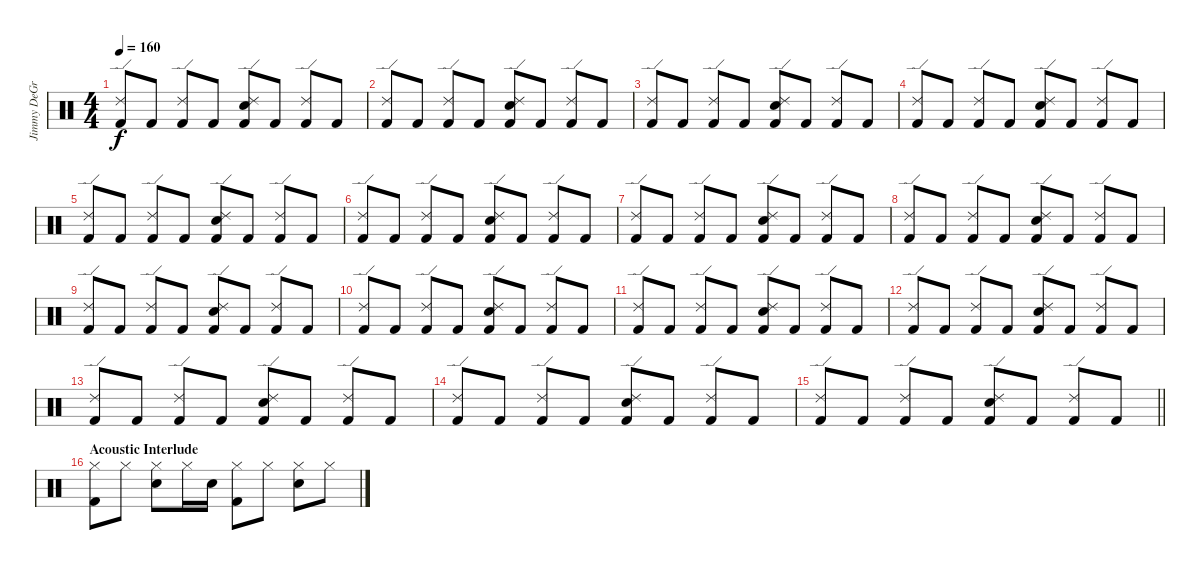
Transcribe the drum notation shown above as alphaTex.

\track ("Jimmy DeGrasso" "Jimmy DeGr") {instrument percussion}
\staff {score}
\articulation defaults
\ts (4 4)
\tempo 160
\clef neutral
\ks c
("Ride (edge) 2" "Kick (hit) 2").8{dy f} "Kick (hit) 2".8 ("Ride (edge) 2" "Kick (hit) 2").8 "Kick (hit) 2".8 ("Ride (edge) 2" "Snare (hit) 2" "Kick (hit) 2").8 "Kick (hit) 2".8 ("Ride (edge) 2" "Kick (hit) 2").8 "Kick (hit) 2".8 |
("Ride (edge) 2" "Kick (hit) 2").8 "Kick (hit) 2".8 ("Ride (edge) 2" "Kick (hit) 2").8 "Kick (hit) 2".8 ("Ride (edge) 2" "Snare (hit) 2" "Kick (hit) 2").8 "Kick (hit) 2".8 ("Ride (edge) 2" "Kick (hit) 2").8 "Kick (hit) 2".8 |
("Ride (edge) 2" "Kick (hit) 2").8 "Kick (hit) 2".8 ("Ride (edge) 2" "Kick (hit) 2").8 "Kick (hit) 2".8 ("Ride (edge) 2" "Snare (hit) 2" "Kick (hit) 2").8 "Kick (hit) 2".8 ("Ride (edge) 2" "Kick (hit) 2").8 "Kick (hit) 2".8 |
("Ride (edge) 2" "Kick (hit) 2").8 "Kick (hit) 2".8 ("Ride (edge) 2" "Kick (hit) 2").8 "Kick (hit) 2".8 ("Ride (edge) 2" "Snare (hit) 2" "Kick (hit) 2").8 "Kick (hit) 2".8 ("Ride (edge) 2" "Kick (hit) 2").8 "Kick (hit) 2".8 |
("Ride (edge) 2" "Kick (hit) 2").8 "Kick (hit) 2".8 ("Ride (edge) 2" "Kick (hit) 2").8 "Kick (hit) 2".8 ("Ride (edge) 2" "Snare (hit) 2" "Kick (hit) 2").8 "Kick (hit) 2".8 ("Ride (edge) 2" "Kick (hit) 2").8 "Kick (hit) 2".8 |
("Ride (edge) 2" "Kick (hit) 2").8 "Kick (hit) 2".8 ("Ride (edge) 2" "Kick (hit) 2").8 "Kick (hit) 2".8 ("Ride (edge) 2" "Snare (hit) 2" "Kick (hit) 2").8 "Kick (hit) 2".8 ("Ride (edge) 2" "Kick (hit) 2").8 "Kick (hit) 2".8 |
("Ride (edge) 2" "Kick (hit) 2").8 "Kick (hit) 2".8 ("Ride (edge) 2" "Kick (hit) 2").8 "Kick (hit) 2".8 ("Ride (edge) 2" "Snare (hit) 2" "Kick (hit) 2").8 "Kick (hit) 2".8 ("Ride (edge) 2" "Kick (hit) 2").8 "Kick (hit) 2".8 |
("Ride (edge) 2" "Kick (hit) 2").8 "Kick (hit) 2".8 ("Ride (edge) 2" "Kick (hit) 2").8 "Kick (hit) 2".8 ("Ride (edge) 2" "Snare (hit) 2" "Kick (hit) 2").8 "Kick (hit) 2".8 ("Ride (edge) 2" "Kick (hit) 2").8 "Kick (hit) 2".8 |
("Ride (edge) 2" "Kick (hit) 2").8 "Kick (hit) 2".8 ("Ride (edge) 2" "Kick (hit) 2").8 "Kick (hit) 2".8 ("Ride (edge) 2" "Snare (hit) 2" "Kick (hit) 2").8 "Kick (hit) 2".8 ("Ride (edge) 2" "Kick (hit) 2").8 "Kick (hit) 2".8 |
("Ride (edge) 2" "Kick (hit) 2").8 "Kick (hit) 2".8 ("Ride (edge) 2" "Kick (hit) 2").8 "Kick (hit) 2".8 ("Ride (edge) 2" "Snare (hit) 2" "Kick (hit) 2").8 "Kick (hit) 2".8 ("Ride (edge) 2" "Kick (hit) 2").8 "Kick (hit) 2".8 |
("Ride (edge) 2" "Kick (hit) 2").8 "Kick (hit) 2".8 ("Ride (edge) 2" "Kick (hit) 2").8 "Kick (hit) 2".8 ("Ride (edge) 2" "Snare (hit) 2" "Kick (hit) 2").8 "Kick (hit) 2".8 ("Ride (edge) 2" "Kick (hit) 2").8 "Kick (hit) 2".8 |
("Ride (edge) 2" "Kick (hit) 2").8 "Kick (hit) 2".8 ("Ride (edge) 2" "Kick (hit) 2").8 "Kick (hit) 2".8 ("Ride (edge) 2" "Snare (hit) 2" "Kick (hit) 2").8 "Kick (hit) 2".8 ("Ride (edge) 2" "Kick (hit) 2").8 "Kick (hit) 2".8 |
("Ride (edge) 2" "Kick (hit) 2").8 "Kick (hit) 2".8 ("Ride (edge) 2" "Kick (hit) 2").8 "Kick (hit) 2".8 ("Ride (edge) 2" "Snare (hit) 2" "Kick (hit) 2").8 "Kick (hit) 2".8 ("Ride (edge) 2" "Kick (hit) 2").8 "Kick (hit) 2".8 |
("Ride (edge) 2" "Kick (hit) 2").8 "Kick (hit) 2".8 ("Ride (edge) 2" "Kick (hit) 2").8 "Kick (hit) 2".8 ("Ride (edge) 2" "Snare (hit) 2" "Kick (hit) 2").8 "Kick (hit) 2".8 ("Ride (edge) 2" "Kick (hit) 2").8 "Kick (hit) 2".8 |
\barLineRight lightlight
("Ride (edge) 2" "Kick (hit) 2").8 "Kick (hit) 2".8 ("Ride (edge) 2" "Kick (hit) 2").8 "Kick (hit) 2".8 ("Ride (edge) 2" "Snare (hit) 2" "Kick (hit) 2").8 "Kick (hit) 2".8 ("Ride (edge) 2" "Kick (hit) 2").8 "Kick (hit) 2".8 |
\section ("" "Acoustic Interlude")
("Hi-Hat (closed)" "Kick (hit) 2").8 "Hi-Hat (closed)".8 ("Hi-Hat (closed)" "Snare (hit) 2").8 "Hi-Hat (closed)".16 "Snare (hit) 2".16 ("Hi-Hat (closed)" "Kick (hit) 2").8 "Hi-Hat (closed)".8 ("Hi-Hat (closed)" "Snare (hit) 2").8 "Hi-Hat (closed)".8
